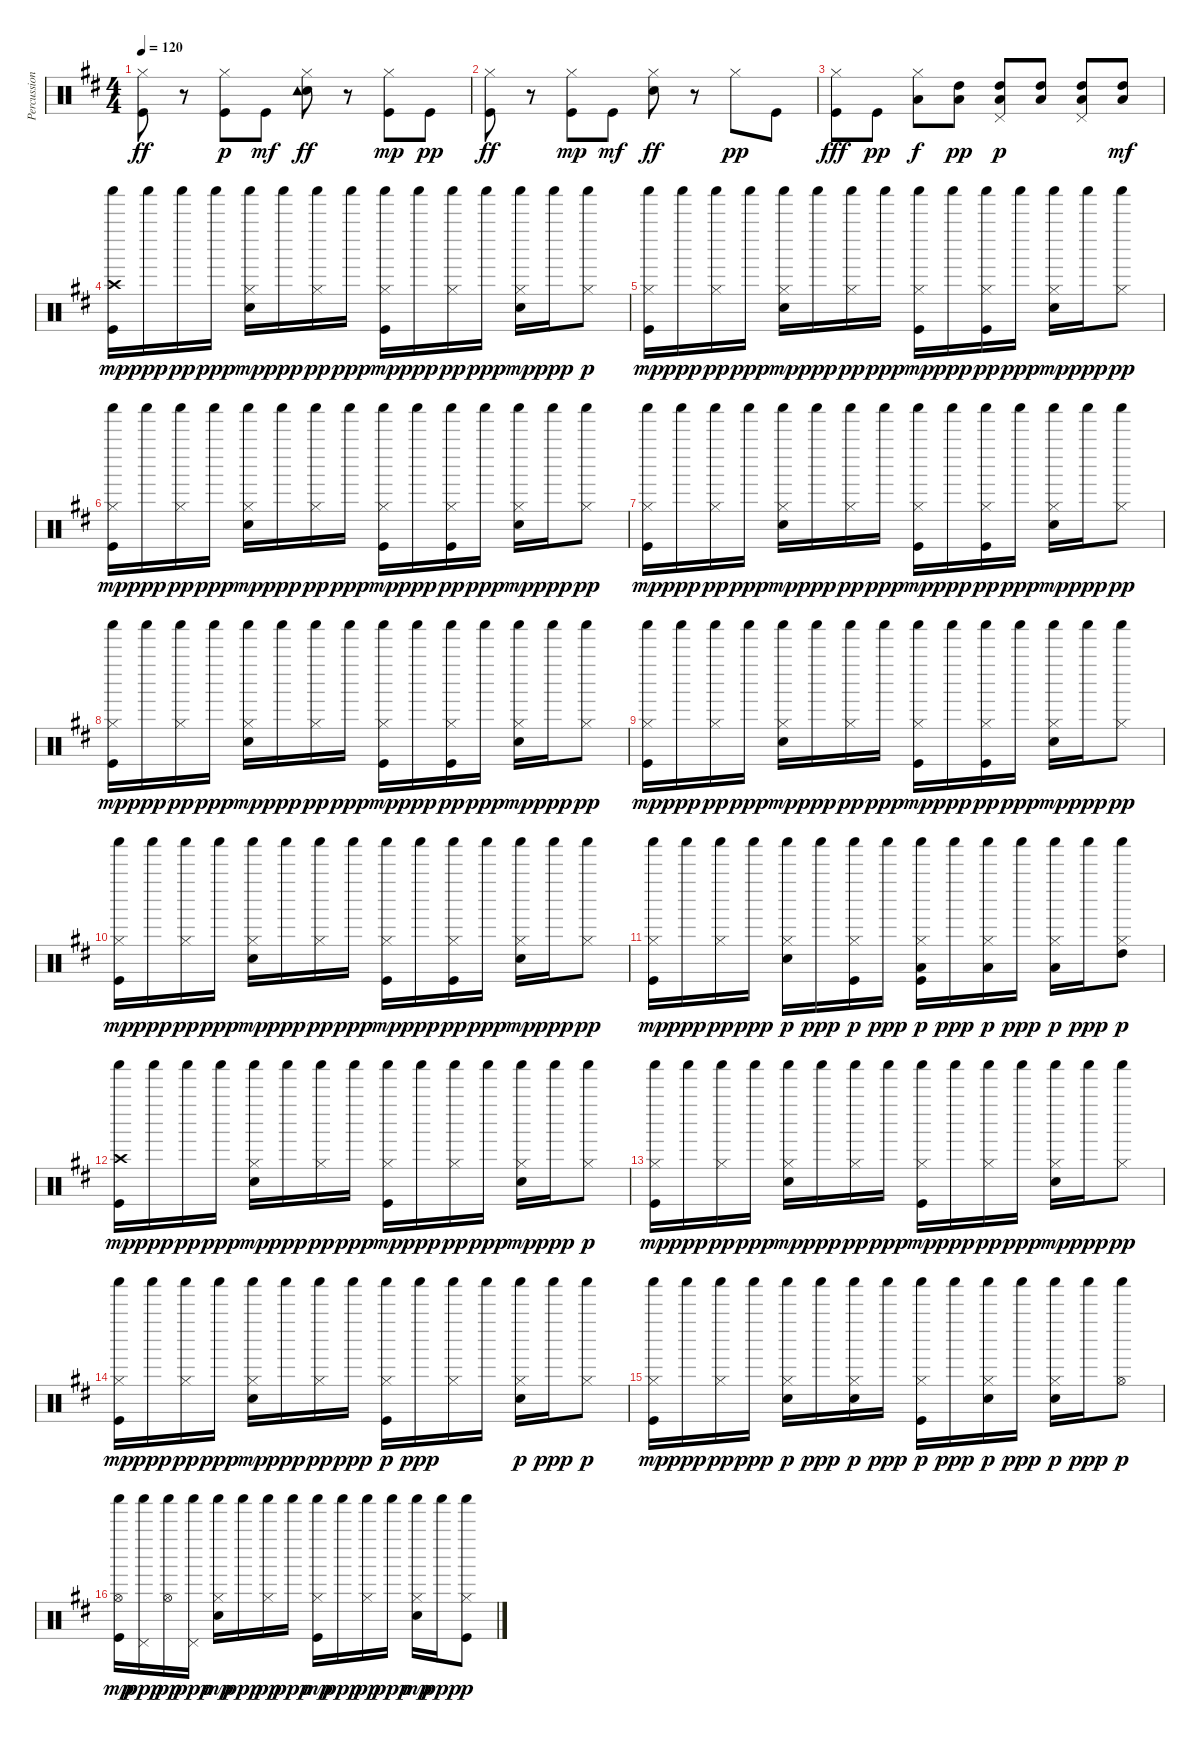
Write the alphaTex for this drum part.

\track ("Percussion" "Percussion") {instrument percussion}
\staff {score}
\articulation defaults
\ts (4 4)
\tempo 120
\clef neutral
\ks d
("Kick (hit)" "Hi-Hat (closed)").8{dy ff} r.8 ("Kick (hit)" "Hi-Hat (closed)").8{dy p} "Kick (hit)".8{dy mf} ("Electric Snare (hit)" "Hi-Hat (closed)" "Tambourine (hit)").8{dy ff} r.8 ("Kick (hit)" "Hi-Hat (closed)").8{dy mp} "Kick (hit)".8{dy pp} |
("Kick (hit)" "Hi-Hat (closed)").8{dy ff} r.8 ("Kick (hit)" "Hi-Hat (closed)").8{dy mp} "Kick (hit)".8{dy mf} ("Electric Snare (hit)" "Hi-Hat (closed)").8{dy ff} r.8 "Hi-Hat (closed)".8{dy pp} "Kick (hit)".8 |
("Kick (hit)" "Hi-Hat (closed)").8{dy fff} "Kick (hit)".8{dy pp} ("Low Tom (hit)" "Hi-Hat (closed)").8{dy f} ("Low Tom (hit)" "High Tom (hit)").8{dy pp} ("High Tom (hit)" "Pedal Hi-Hat (hit)" "Low Tom (hit)").8{dy p} ("Low Tom (hit)" "High Tom (hit)").8 ("Low Tom (hit)" "High Tom (hit)" "Pedal Hi-Hat (hit)").8 ("Low Tom (hit)" "High Tom (hit)").8{dy mf} |
("Kick (hit)" "Crash high (hit)" "Shaker (hit)").16{dy mp} "Shaker (hit)".16{dy ppp} "Shaker (hit)".16{dy pp} "Shaker (hit)".16{dy ppp} ("Electric Snare (hit)" "Hi-Hat (closed)" "Shaker (hit)").16{dy mp} "Shaker (hit)".16{dy ppp} ("Hi-Hat (closed)" "Shaker (hit)").16{dy pp} "Shaker (hit)".16{dy ppp} ("Kick (hit)" "Hi-Hat (closed)" "Shaker (hit)").16{dy mp} "Shaker (hit)".16{dy ppp} ("Hi-Hat (closed)" "Shaker (hit)").16{dy pp} "Shaker (hit)".16{dy ppp} ("Electric Snare (hit)" "Hi-Hat (closed)" "Shaker (hit)").16{dy mp} "Shaker (hit)".16{dy ppp} ("Hi-Hat (closed)" "Shaker (hit)").8{dy p} |
("Kick (hit)" "Hi-Hat (closed)" "Shaker (hit)").16{dy mp} "Shaker (hit)".16{dy ppp} ("Hi-Hat (closed)" "Shaker (hit)").16{dy pp} "Shaker (hit)".16{dy ppp} ("Electric Snare (hit)" "Hi-Hat (closed)" "Shaker (hit)").16{dy mp} "Shaker (hit)".16{dy ppp} ("Hi-Hat (closed)" "Shaker (hit)").16{dy pp} "Shaker (hit)".16{dy ppp} ("Kick (hit)" "Hi-Hat (closed)" "Shaker (hit)").16{dy mp} "Shaker (hit)".16{dy ppp} ("Kick (hit)" "Hi-Hat (closed)" "Shaker (hit)").16{dy pp} "Shaker (hit)".16{dy ppp} ("Electric Snare (hit)" "Hi-Hat (closed)" "Shaker (hit)").16{dy mp} "Shaker (hit)".16{dy ppp} ("Hi-Hat (closed)" "Shaker (hit)").8{dy pp} |
("Kick (hit)" "Hi-Hat (closed)" "Shaker (hit)").16{dy mp} "Shaker (hit)".16{dy ppp} ("Hi-Hat (closed)" "Shaker (hit)").16{dy pp} "Shaker (hit)".16{dy ppp} ("Electric Snare (hit)" "Hi-Hat (closed)" "Shaker (hit)").16{dy mp} "Shaker (hit)".16{dy ppp} ("Hi-Hat (closed)" "Shaker (hit)").16{dy pp} "Shaker (hit)".16{dy ppp} ("Kick (hit)" "Hi-Hat (closed)" "Shaker (hit)").16{dy mp} "Shaker (hit)".16{dy ppp} ("Kick (hit)" "Hi-Hat (closed)" "Shaker (hit)").16{dy pp} "Shaker (hit)".16{dy ppp} ("Electric Snare (hit)" "Hi-Hat (closed)" "Shaker (hit)").16{dy mp} "Shaker (hit)".16{dy ppp} ("Hi-Hat (closed)" "Shaker (hit)").8{dy pp} |
("Kick (hit)" "Hi-Hat (closed)" "Shaker (hit)").16{dy mp} "Shaker (hit)".16{dy ppp} ("Hi-Hat (closed)" "Shaker (hit)").16{dy pp} "Shaker (hit)".16{dy ppp} ("Electric Snare (hit)" "Hi-Hat (closed)" "Shaker (hit)").16{dy mp} "Shaker (hit)".16{dy ppp} ("Hi-Hat (closed)" "Shaker (hit)").16{dy pp} "Shaker (hit)".16{dy ppp} ("Kick (hit)" "Hi-Hat (closed)" "Shaker (hit)").16{dy mp} "Shaker (hit)".16{dy ppp} ("Kick (hit)" "Hi-Hat (closed)" "Shaker (hit)").16{dy pp} "Shaker (hit)".16{dy ppp} ("Electric Snare (hit)" "Hi-Hat (closed)" "Shaker (hit)").16{dy mp} "Shaker (hit)".16{dy ppp} ("Hi-Hat (closed)" "Shaker (hit)").8{dy pp} |
("Kick (hit)" "Hi-Hat (closed)" "Shaker (hit)").16{dy mp} "Shaker (hit)".16{dy ppp} ("Hi-Hat (closed)" "Shaker (hit)").16{dy pp} "Shaker (hit)".16{dy ppp} ("Electric Snare (hit)" "Hi-Hat (closed)" "Shaker (hit)").16{dy mp} "Shaker (hit)".16{dy ppp} ("Hi-Hat (closed)" "Shaker (hit)").16{dy pp} "Shaker (hit)".16{dy ppp} ("Kick (hit)" "Hi-Hat (closed)" "Shaker (hit)").16{dy mp} "Shaker (hit)".16{dy ppp} ("Kick (hit)" "Hi-Hat (closed)" "Shaker (hit)").16{dy pp} "Shaker (hit)".16{dy ppp} ("Electric Snare (hit)" "Hi-Hat (closed)" "Shaker (hit)").16{dy mp} "Shaker (hit)".16{dy ppp} ("Hi-Hat (closed)" "Shaker (hit)").8{dy pp} |
("Kick (hit)" "Hi-Hat (closed)" "Shaker (hit)").16{dy mp} "Shaker (hit)".16{dy ppp} ("Hi-Hat (closed)" "Shaker (hit)").16{dy pp} "Shaker (hit)".16{dy ppp} ("Electric Snare (hit)" "Hi-Hat (closed)" "Shaker (hit)").16{dy mp} "Shaker (hit)".16{dy ppp} ("Hi-Hat (closed)" "Shaker (hit)").16{dy pp} "Shaker (hit)".16{dy ppp} ("Kick (hit)" "Hi-Hat (closed)" "Shaker (hit)").16{dy mp} "Shaker (hit)".16{dy ppp} ("Kick (hit)" "Hi-Hat (closed)" "Shaker (hit)").16{dy pp} "Shaker (hit)".16{dy ppp} ("Electric Snare (hit)" "Hi-Hat (closed)" "Shaker (hit)").16{dy mp} "Shaker (hit)".16{dy ppp} ("Hi-Hat (closed)" "Shaker (hit)").8{dy pp} |
("Kick (hit)" "Hi-Hat (closed)" "Shaker (hit)").16{dy mp} "Shaker (hit)".16{dy ppp} ("Hi-Hat (closed)" "Shaker (hit)").16{dy pp} "Shaker (hit)".16{dy ppp} ("Electric Snare (hit)" "Hi-Hat (closed)" "Shaker (hit)").16{dy mp} "Shaker (hit)".16{dy ppp} ("Hi-Hat (closed)" "Shaker (hit)").16{dy pp} "Shaker (hit)".16{dy ppp} ("Kick (hit)" "Hi-Hat (closed)" "Shaker (hit)").16{dy mp} "Shaker (hit)".16{dy ppp} ("Kick (hit)" "Hi-Hat (closed)" "Shaker (hit)").16{dy pp} "Shaker (hit)".16{dy ppp} ("Electric Snare (hit)" "Hi-Hat (closed)" "Shaker (hit)").16{dy mp} "Shaker (hit)".16{dy ppp} ("Hi-Hat (closed)" "Shaker (hit)").8{dy pp} |
("Kick (hit)" "Hi-Hat (closed)" "Shaker (hit)").16{dy mp} "Shaker (hit)".16{dy ppp} ("Hi-Hat (closed)" "Shaker (hit)").16{dy pp} "Shaker (hit)".16{dy ppp} ("Electric Snare (hit)" "Hi-Hat (closed)" "Shaker (hit)").16{dy p} "Shaker (hit)".16{dy ppp} ("Kick (hit)" "Hi-Hat (closed)" "Shaker (hit)").16{dy p} "Shaker (hit)".16{dy ppp} ("Kick (hit)" "Hi-Hat (closed)" "Low Tom (hit)" "Shaker (hit)").16{dy p} "Shaker (hit)".16{dy ppp} ("Hi-Hat (closed)" "Low Tom (hit)" "Shaker (hit)").16{dy p} "Shaker (hit)".16{dy ppp} ("Hi-Hat (closed)" "Low Tom (hit)" "Shaker (hit)").16{dy p} "Shaker (hit)".16{dy ppp} ("Hi-Hat (closed)" "High Tom (hit)" "Shaker (hit)").8{dy p} |
("Kick (hit)" "Crash high (hit)" "Shaker (hit)").16{dy mp} "Shaker (hit)".16{dy ppp} "Shaker (hit)".16{dy pp} "Shaker (hit)".16{dy ppp} ("Electric Snare (hit)" "Hi-Hat (closed)" "Shaker (hit)").16{dy mp} "Shaker (hit)".16{dy ppp} ("Hi-Hat (closed)" "Shaker (hit)").16{dy pp} "Shaker (hit)".16{dy ppp} ("Kick (hit)" "Hi-Hat (closed)" "Shaker (hit)").16{dy mp} "Shaker (hit)".16{dy ppp} ("Hi-Hat (closed)" "Shaker (hit)").16{dy pp} "Shaker (hit)".16{dy ppp} ("Electric Snare (hit)" "Hi-Hat (closed)" "Shaker (hit)").16{dy mp} "Shaker (hit)".16{dy ppp} ("Hi-Hat (closed)" "Shaker (hit)").8{dy p} |
("Kick (hit)" "Hi-Hat (closed)" "Shaker (hit)").16{dy mp} "Shaker (hit)".16{dy ppp} ("Hi-Hat (closed)" "Shaker (hit)").16{dy pp} "Shaker (hit)".16{dy ppp} ("Electric Snare (hit)" "Hi-Hat (closed)" "Shaker (hit)").16{dy mp} "Shaker (hit)".16{dy ppp} ("Hi-Hat (closed)" "Shaker (hit)").16{dy pp} "Shaker (hit)".16{dy ppp} ("Kick (hit)" "Hi-Hat (closed)" "Shaker (hit)").16{dy mp} "Shaker (hit)".16{dy ppp} ("Hi-Hat (closed)" "Shaker (hit)").16{dy pp} "Shaker (hit)".16{dy ppp} ("Electric Snare (hit)" "Hi-Hat (closed)" "Shaker (hit)").16{dy mp} "Shaker (hit)".16{dy ppp} ("Hi-Hat (closed)" "Shaker (hit)").8{dy pp} |
("Kick (hit)" "Hi-Hat (closed)" "Shaker (hit)").16{dy mp} "Shaker (hit)".16{dy ppp} ("Hi-Hat (closed)" "Shaker (hit)").16{dy pp} "Shaker (hit)".16{dy ppp} ("Electric Snare (hit)" "Hi-Hat (closed)" "Shaker (hit)").16{dy mp} "Shaker (hit)".16{dy ppp} ("Hi-Hat (closed)" "Shaker (hit)").16{dy pp} "Shaker (hit)".16{dy ppp} ("Kick (hit)" "Hi-Hat (closed)" "Shaker (hit)").16{dy p} "Shaker (hit)".16{dy ppp} ("Hi-Hat (closed)" "Shaker (hit)").16 "Shaker (hit)".16 ("Electric Snare (hit)" "Hi-Hat (closed)" "Shaker (hit)").16{dy p} "Shaker (hit)".16{dy ppp} ("Hi-Hat (closed)" "Shaker (hit)").8{dy p} |
("Kick (hit)" "Hi-Hat (closed)" "Shaker (hit)").16{dy mp} "Shaker (hit)".16{dy ppp} ("Hi-Hat (closed)" "Shaker (hit)").16{dy pp} "Shaker (hit)".16{dy ppp} ("Electric Snare (hit)" "Hi-Hat (closed)" "Shaker (hit)").16{dy p} "Shaker (hit)".16{dy ppp} ("Electric Snare (hit)" "Hi-Hat (closed)" "Shaker (hit)").16{dy p} "Shaker (hit)".16{dy ppp} ("Kick (hit)" "Hi-Hat (closed)" "Shaker (hit)").16{dy p} "Shaker (hit)".16{dy ppp} ("Electric Snare (hit)" "Hi-Hat (closed)" "Shaker (hit)").16{dy p} "Shaker (hit)".16{dy ppp} ("Electric Snare (hit)" "Hi-Hat (closed)" "Shaker (hit)").16{dy p} "Shaker (hit)".16{dy ppp} ("Hi-Hat (open)" "Shaker (hit)").8{dy p} |
("Kick (hit)" "Hi-Hat (open)" "Shaker (hit)").16{dy mp} ("Pedal Hi-Hat (hit)" "Shaker (hit)").16{dy ppp} ("Hi-Hat (open)" "Shaker (hit)").16{dy pp} ("Pedal Hi-Hat (hit)" "Shaker (hit)").16{dy ppp} ("Electric Snare (hit)" "Hi-Hat (closed)" "Shaker (hit)").16{dy mp} "Shaker (hit)".16{dy ppp} ("Hi-Hat (closed)" "Shaker (hit)").16{dy pp} "Shaker (hit)".16{dy ppp} ("Kick (hit)" "Hi-Hat (closed)" "Shaker (hit)").16{dy mp} "Shaker (hit)".16{dy ppp} ("Hi-Hat (closed)" "Shaker (hit)").16{dy pp} "Shaker (hit)".16{dy ppp} ("Electric Snare (hit)" "Hi-Hat (closed)" "Shaker (hit)").16{dy mp} "Shaker (hit)".16{dy ppp} ("Kick (hit)" "Hi-Hat (closed)" "Shaker (hit)").8{dy p}
